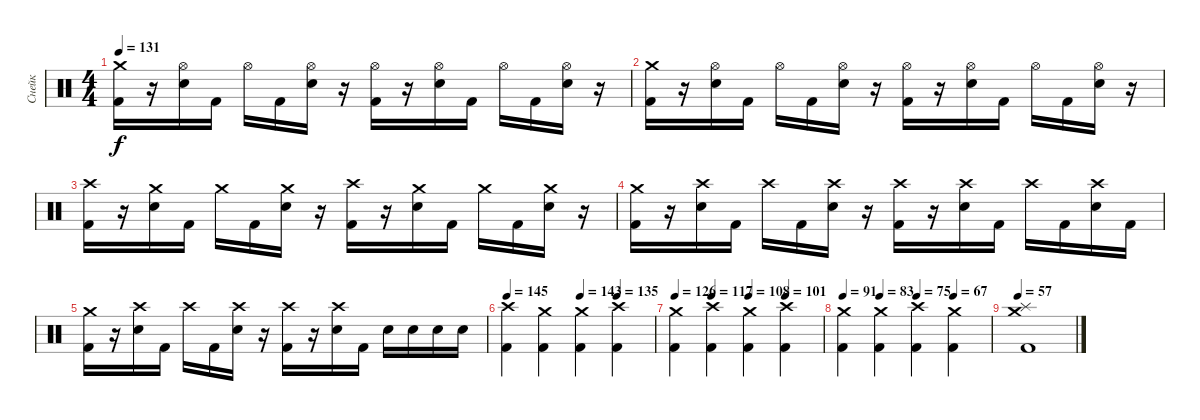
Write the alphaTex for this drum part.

\track ("Снейк" "Снейк") {instrument percussion}
\staff {score}
\articulation defaults
\ts (4 4)
\tempo 131
\clef neutral
\ks c
("Kick (hit) 2" "Crash medium (hit)").16{dy f} r.16 ("Electric Snare (hit)" "Hi-Hat (open)").16 "Kick (hit) 2".16 "Hi-Hat (open)".16 "Kick (hit) 2".16 ("Electric Snare (hit)" "Hi-Hat (open)").16 r.16 ("Kick (hit) 2" "Hi-Hat (open)").16 r.16 ("Electric Snare (hit)" "Hi-Hat (open)").16 "Kick (hit) 2".16 "Hi-Hat (open)".16 "Kick (hit) 2".16 ("Electric Snare (hit)" "Hi-Hat (open)").16 r.16 |
("Kick (hit) 2" "Crash medium (hit)").16 r.16 ("Electric Snare (hit)" "Hi-Hat (open)").16 "Kick (hit) 2".16 "Hi-Hat (open)".16 "Kick (hit) 2".16 ("Electric Snare (hit)" "Hi-Hat (open)").16 r.16 ("Kick (hit) 2" "Hi-Hat (open)").16 r.16 ("Electric Snare (hit)" "Hi-Hat (open)").16 "Kick (hit) 2".16 "Hi-Hat (open)".16 "Kick (hit) 2".16 ("Electric Snare (hit)" "Hi-Hat (open)").16 r.16 |
("Kick (hit) 2" "Crash high (hit)").16 r.16 ("Electric Snare (hit)" "Crash medium (hit)").16 "Kick (hit) 2".16 "Crash medium (hit)".16 "Kick (hit) 2".16 ("Electric Snare (hit)" "Crash medium (hit)").16 r.16 ("Kick (hit) 2" "Crash high (hit)").16 r.16 ("Electric Snare (hit)" "Crash medium (hit)").16 "Kick (hit) 2".16 "Crash medium (hit)".16 "Kick (hit) 2".16 ("Electric Snare (hit)" "Crash medium (hit)").16 r.16 |
("Kick (hit) 2" "Crash medium (hit)").16 r.16 ("Electric Snare (hit)" "Crash high (hit)").16 "Kick (hit) 2".16 "Crash high (hit)".16 "Kick (hit) 2".16 ("Electric Snare (hit)" "Crash high (hit)").16 r.16 ("Kick (hit) 2" "Crash high (hit)").16 r.16 ("Electric Snare (hit)" "Crash high (hit)").16 "Kick (hit) 2".16 "Crash high (hit)".16 "Kick (hit) 2".16 ("Electric Snare (hit)" "Crash high (hit)").16 "Kick (hit) 2".16 |
("Kick (hit) 2" "Crash medium (hit)").16 r.16 ("Electric Snare (hit)" "Crash high (hit)").16 "Kick (hit) 2".16 "Crash high (hit)".16 "Kick (hit) 2".16 ("Electric Snare (hit)" "Crash high (hit)").16 r.16 ("Kick (hit) 2" "Crash high (hit)").16 r.16 ("Electric Snare (hit)" "Crash high (hit)").16 "Kick (hit) 2".16 "Electric Snare (hit)".16 "Electric Snare (hit)".16 "Electric Snare (hit)".16 "Electric Snare (hit)".16 |
\tempo 145
\tempo (143 0.5)
\tempo (135 0.75)
("Crash high (hit)" "Kick (hit) 2").4 ("Crash medium (hit)" "Kick (hit) 2").4 ("Crash medium (hit)" "Kick (hit) 2").4 ("Crash high (hit)" "Kick (hit) 2").4 |
\tempo 126
\tempo (117 0.25)
\tempo (108 0.5)
\tempo (101 0.75)
("Crash medium (hit)" "Kick (hit) 2").4 ("Crash high (hit)" "Kick (hit) 2").4 ("Crash medium (hit)" "Kick (hit) 2").4 ("Crash high (hit)" "Kick (hit) 2").4 |
\tempo 91
\tempo (83 0.25)
\tempo (75 0.5)
\tempo (67 0.75)
("Crash medium (hit)" "Kick (hit) 2").4 ("Crash medium (hit)" "Kick (hit) 2").4 ("Crash high (hit)" "Kick (hit) 2").4 ("Crash medium (hit)" "Kick (hit) 2").4 |
\tempo 57
("Crash medium (hit)" "Splash (hit)" "Kick (hit) 2").1
